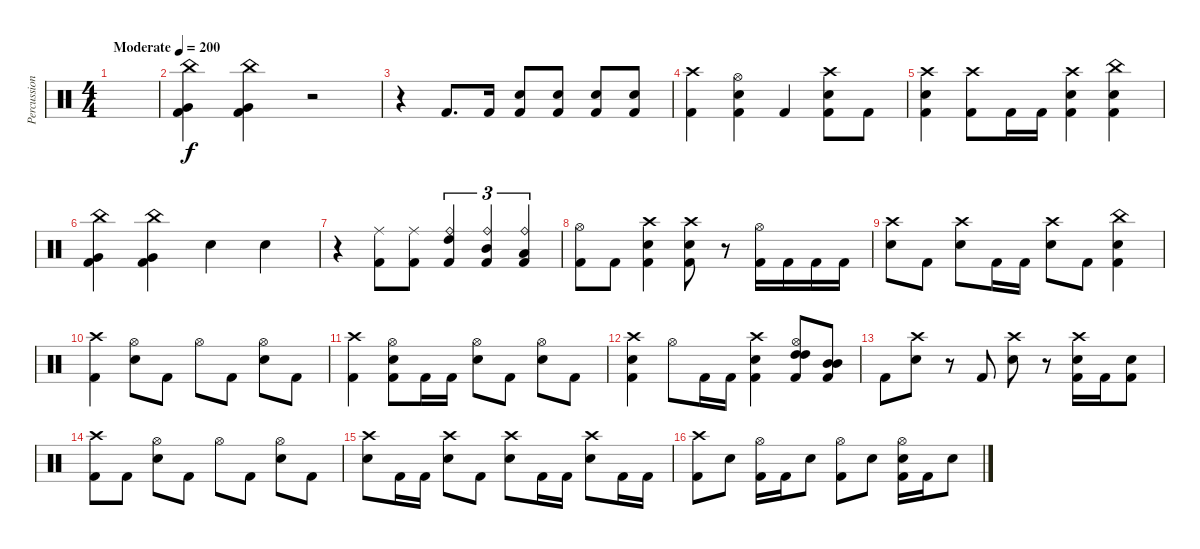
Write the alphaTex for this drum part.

\track ("Percussion" "Percussion") {instrument percussion}
\staff {score}
\articulation defaults
\ts (4 4)
\tempo (200 "Moderate")
\clef neutral
\ks c
|
("China (hit)" "Very Low Tom (hit)" "Kick (hit) 2").4 ("China (hit)" "Very Low Tom (hit)" "Kick (hit) 2").4 r.2 |
r.4 "Kick (hit) 2".8{d} "Kick (hit) 2".16 ("Snare (hit) 2" "Kick (hit) 2").8 ("Snare (hit) 2" "Kick (hit) 2").8 ("Snare (hit) 2" "Kick (hit) 2").8 ("Snare (hit) 2" "Kick (hit) 2").8 |
("Crash high (hit)" "Kick (hit) 2").4 ("Hi-Hat (open)" "Snare (hit) 2" "Kick (hit) 2").4 "Kick (hit) 2".4 ("Crash high (hit)" "Snare (hit) 2" "Kick (hit) 2").8 "Kick (hit) 2".8 |
("Crash high (hit)" "Snare (hit) 2" "Kick (hit) 2").4 ("Crash high (hit)" "Kick (hit) 2").8 "Kick (hit) 2".16 "Kick (hit) 2".16 ("Crash high (hit)" "Snare (hit) 2" "Kick (hit) 2").4 ("China (hit)" "Snare (hit) 2" "Kick (hit) 2").4 |
("China (hit)" "Very Low Tom (hit)" "Kick (hit) 2").4 ("China (hit)" "Very Low Tom (hit)" "Kick (hit) 2").4 "Snare (hit) 2".4 "Snare (hit) 2".4 |
r.4 ("Ride (middle)" "Kick (hit) 2").8 ("Ride (middle)" "Kick (hit) 2").8 ("Ride (bell)" "High Tom (hit)" "Kick (hit) 2").4{tu (3 2)} ("Ride (bell)" "Mid Tom (hit)" "Kick (hit) 2").4{tu (3 2)} ("Ride (bell)" "Low Tom (hit)" "Kick (hit) 2").4{tu (3 2)} |
("Hi-Hat (open)" "Kick (hit) 2").8 "Kick (hit) 2".8 ("Crash high (hit)" "Snare (hit) 2" "Kick (hit) 2").4 ("Crash high (hit)" "Snare (hit) 2" "Kick (hit) 2").8 r.8 ("Hi-Hat (open)" "Kick (hit) 2").16 "Kick (hit) 2".16 "Kick (hit) 2".16 "Kick (hit) 2".16 |
("Crash high (hit)" "Snare (hit) 2").8 "Kick (hit) 2".8 ("Crash high (hit)" "Snare (hit) 2").8 "Kick (hit) 2".16 "Kick (hit) 2".16 ("Crash high (hit)" "Snare (hit) 2").8 "Kick (hit) 2".8 ("China (hit)" "Snare (hit) 2" "Kick (hit) 2").4 |
("Crash high (hit)" "Kick (hit) 2").4 ("Hi-Hat (open)" "Snare (hit) 2").8 "Kick (hit) 2".8 "Hi-Hat (open)".8 "Kick (hit) 2".8 ("Hi-Hat (open)" "Snare (hit) 2").8 "Kick (hit) 2".8 |
("Crash high (hit)" "Kick (hit) 2").4 ("Hi-Hat (open)" "Snare (hit) 2" "Kick (hit) 2").8 "Kick (hit) 2".16 "Kick (hit) 2".16 ("Hi-Hat (open)" "Snare (hit) 2").8 "Kick (hit) 2".8 ("Hi-Hat (open)" "Snare (hit) 2").8 "Kick (hit) 2".8 |
("Crash high (hit)" "Snare (hit) 2" "Kick (hit) 2").4 "Hi-Hat (open)".8 "Kick (hit) 2".16 "Kick (hit) 2".16 ("Crash high (hit)" "Snare (hit) 2" "Kick (hit) 2").4 ("Hi-Hat (open)" "High Tom (hit)" "High Tom (hit)" "Kick (hit) 2").8 ("Mid Tom (hit)" "Mid Tom (hit)" "Kick (hit) 2").8 |
"Kick (hit) 2".8 ("Crash high (hit)" "Snare (hit) 2").8 r.8 "Kick (hit) 2".8 ("Crash high (hit)" "Snare (hit) 2").8 r.8 ("Crash high (hit)" "Snare (hit) 2" "Kick (hit) 2").16 "Kick (hit) 2".16 ("Snare (hit) 2" "Kick (hit) 2").8 |
("Crash high (hit)" "Kick (hit) 2").8 "Kick (hit) 2".8 ("Hi-Hat (open)" "Snare (hit) 2").8 "Kick (hit) 2".8 "Hi-Hat (open)".8 "Kick (hit) 2".8 ("Hi-Hat (open)" "Snare (hit) 2").8 "Kick (hit) 2".8 |
("Crash high (hit)" "Snare (hit) 2").8 "Kick (hit) 2".16 "Kick (hit) 2".16 ("Crash high (hit)" "Snare (hit) 2").8 "Kick (hit) 2".8 ("Crash high (hit)" "Snare (hit) 2").8 "Kick (hit) 2".16 "Kick (hit) 2".16 ("Crash high (hit)" "Snare (hit) 2").8 "Kick (hit) 2".16 "Kick (hit) 2".16 |
("Crash high (hit)" "Kick (hit) 2").8 "Snare (hit) 2".8 ("Hi-Hat (open)" "Kick (hit) 2").16 "Kick (hit) 2".16 "Snare (hit) 2".8 ("Hi-Hat (open)" "Kick (hit) 2").8 "Snare (hit) 2".8 ("Hi-Hat (open)" "Snare (hit) 2" "Kick (hit) 2").16 "Kick (hit) 2".16 "Snare (hit) 2".8
